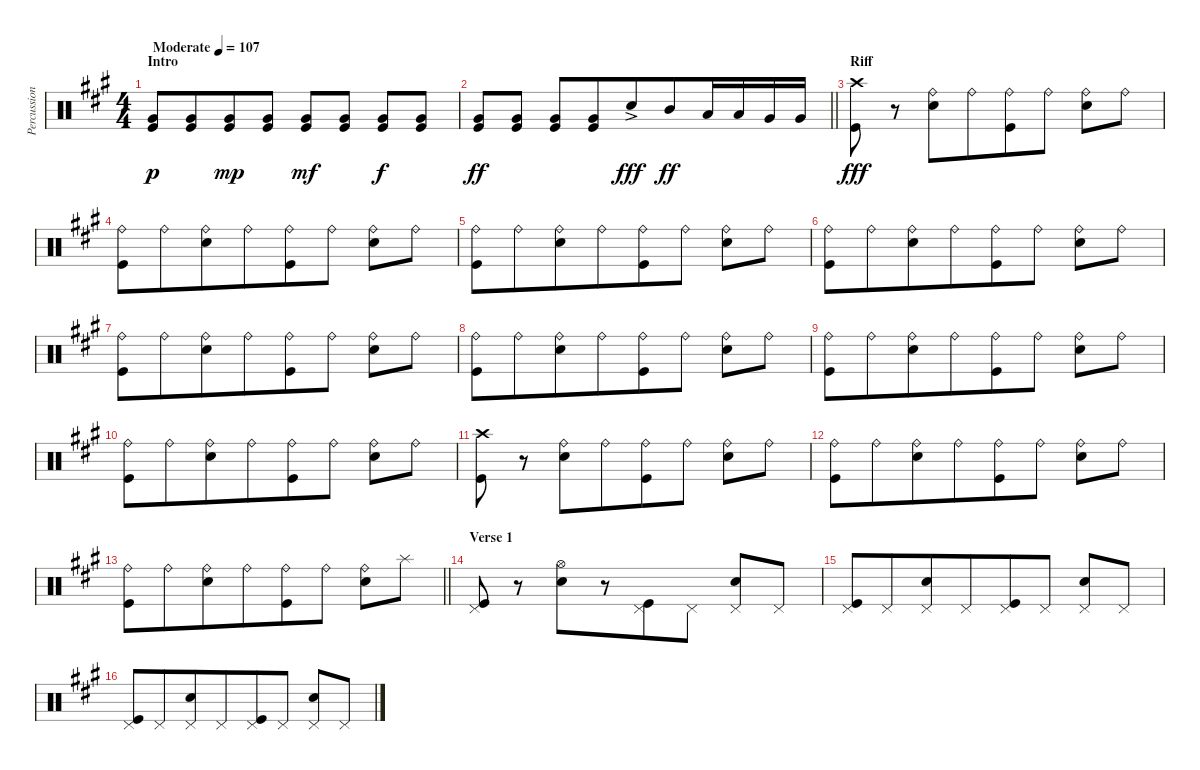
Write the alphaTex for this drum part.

\track ("Percussion" "Percussion") {instrument percussion}
\staff {score}
\articulation defaults
\ts (4 4)
\section ("" "Intro")
\tempo (107 "Moderate")
\clef neutral
\ks a
("Kick (hit)" "Very Low Tom (hit)").8{dy p} ("Kick (hit)" "Very Low Tom (hit)").8{beam merge} ("Kick (hit)" "Very Low Tom (hit)").8{dy mp} ("Kick (hit)" "Very Low Tom (hit)").8 ("Kick (hit)" "Very Low Tom (hit)").8{dy mf} ("Kick (hit)" "Very Low Tom (hit)").8 ("Kick (hit)" "Very Low Tom (hit)").8{dy f} ("Kick (hit)" "Very Low Tom (hit)").8 |
\barLineRight lightlight
("Kick (hit)" "Very Low Tom (hit)").8{dy ff beam merge} ("Kick (hit)" "Very Low Tom (hit)").8 ("Kick (hit)" "Very Low Tom (hit)").8 ("Kick (hit)" "Very Low Tom (hit)").8{beam merge} "Electric Snare (hit)"{ac}.8{dy fff beam merge} "Mid Tom (hit)".8{dy ff beam merge} "Low Tom (hit)".16{beam merge} "Low Tom (hit)".16 "Very Low Tom (hit)".16 "Very Low Tom (hit)".16 |
\section ("" "Riff")
("Kick (hit)" "Crash high (hit)").8{dy fff} r.8{beam merge} ("Electric Snare (hit)" "Ride (bell)").8{beam merge} "Ride (bell)".8{beam merge} ("Ride (bell)" "Kick (hit)").8{beam merge} "Ride (bell)".8 ("Ride (bell)" "Electric Snare (hit)").8{beam merge} "Ride (bell)".8 |
("Kick (hit)" "Ride (bell)").8 "Ride (bell)".8{beam merge} ("Electric Snare (hit)" "Ride (bell)").8{beam merge} "Ride (bell)".8{beam merge} ("Ride (bell)" "Kick (hit)").8{beam merge} "Ride (bell)".8 ("Ride (bell)" "Electric Snare (hit)").8{beam merge} "Ride (bell)".8 |
("Kick (hit)" "Ride (bell)").8 "Ride (bell)".8{beam merge} ("Electric Snare (hit)" "Ride (bell)").8{beam merge} "Ride (bell)".8{beam merge} ("Ride (bell)" "Kick (hit)").8{beam merge} "Ride (bell)".8 ("Ride (bell)" "Electric Snare (hit)").8{beam merge} "Ride (bell)".8 |
("Kick (hit)" "Ride (bell)").8 "Ride (bell)".8{beam merge} ("Electric Snare (hit)" "Ride (bell)").8{beam merge} "Ride (bell)".8{beam merge} ("Ride (bell)" "Kick (hit)").8{beam merge} "Ride (bell)".8 ("Ride (bell)" "Electric Snare (hit)").8{beam merge} "Ride (bell)".8 |
("Kick (hit)" "Ride (bell)").8 "Ride (bell)".8{beam merge} ("Electric Snare (hit)" "Ride (bell)").8{beam merge} "Ride (bell)".8{beam merge} ("Ride (bell)" "Kick (hit)").8{beam merge} "Ride (bell)".8 ("Ride (bell)" "Electric Snare (hit)").8{beam merge} "Ride (bell)".8 |
("Kick (hit)" "Ride (bell)").8 "Ride (bell)".8{beam merge} ("Electric Snare (hit)" "Ride (bell)").8{beam merge} "Ride (bell)".8{beam merge} ("Ride (bell)" "Kick (hit)").8{beam merge} "Ride (bell)".8 ("Ride (bell)" "Electric Snare (hit)").8{beam merge} "Ride (bell)".8 |
("Kick (hit)" "Ride (bell)").8 "Ride (bell)".8{beam merge} ("Electric Snare (hit)" "Ride (bell)").8{beam merge} "Ride (bell)".8{beam merge} ("Ride (bell)" "Kick (hit)").8{beam merge} "Ride (bell)".8 ("Ride (bell)" "Electric Snare (hit)").8{beam merge} "Ride (bell)".8 |
("Kick (hit)" "Ride (bell)").8 "Ride (bell)".8{beam merge} ("Electric Snare (hit)" "Ride (bell)").8{beam merge} "Ride (bell)".8{beam merge} ("Ride (bell)" "Kick (hit)").8{beam merge} "Ride (bell)".8 ("Ride (bell)" "Electric Snare (hit)").8{beam merge} "Ride (bell)".8 |
("Kick (hit)" "Crash high (hit)").8 r.8{beam merge} ("Electric Snare (hit)" "Ride (bell)").8{beam merge} "Ride (bell)".8{beam merge} ("Ride (bell)" "Kick (hit)").8{beam merge} "Ride (bell)".8 ("Ride (bell)" "Electric Snare (hit)").8{beam merge} "Ride (bell)".8 |
("Kick (hit)" "Ride (bell)").8 "Ride (bell)".8{beam merge} ("Electric Snare (hit)" "Ride (bell)").8{beam merge} "Ride (bell)".8{beam merge} ("Ride (bell)" "Kick (hit)").8{beam merge} "Ride (bell)".8 ("Ride (bell)" "Electric Snare (hit)").8{beam merge} "Ride (bell)".8 |
\barLineRight lightlight
("Kick (hit)" "Ride (bell)").8 "Ride (bell)".8{beam merge} ("Electric Snare (hit)" "Ride (bell)").8{beam merge} "Ride (bell)".8{beam merge} ("Ride (bell)" "Kick (hit)").8{beam merge} "Ride (bell)".8 ("Ride (bell)" "Electric Snare (hit)").8{beam merge} "Splash (hit)".8 |
\section ("" "Verse 1")
("Kick (hit)" "Pedal Hi-Hat (hit)").8 r.8{beam merge} ("Electric Snare (hit)" "Hi-Hat (open)").8{beam merge} r.8{beam merge} ("Kick (hit)" "Pedal Hi-Hat (hit)").8{beam merge} "Pedal Hi-Hat (hit)".8 ("Electric Snare (hit)" "Pedal Hi-Hat (hit)").8{beam merge} "Pedal Hi-Hat (hit)".8 |
("Kick (hit)" "Pedal Hi-Hat (hit)").8 "Pedal Hi-Hat (hit)".8{beam merge} ("Electric Snare (hit)" "Pedal Hi-Hat (hit)").8{beam merge} "Pedal Hi-Hat (hit)".8{beam merge} ("Kick (hit)" "Pedal Hi-Hat (hit)").8{beam merge} "Pedal Hi-Hat (hit)".8 ("Electric Snare (hit)" "Pedal Hi-Hat (hit)").8{beam merge} "Pedal Hi-Hat (hit)".8 |
("Kick (hit)" "Pedal Hi-Hat (hit)").8 "Pedal Hi-Hat (hit)".8{beam merge} ("Electric Snare (hit)" "Pedal Hi-Hat (hit)").8{beam merge} "Pedal Hi-Hat (hit)".8{beam merge} ("Kick (hit)" "Pedal Hi-Hat (hit)").8{beam merge} "Pedal Hi-Hat (hit)".8 ("Electric Snare (hit)" "Pedal Hi-Hat (hit)").8{beam merge} "Pedal Hi-Hat (hit)".8
